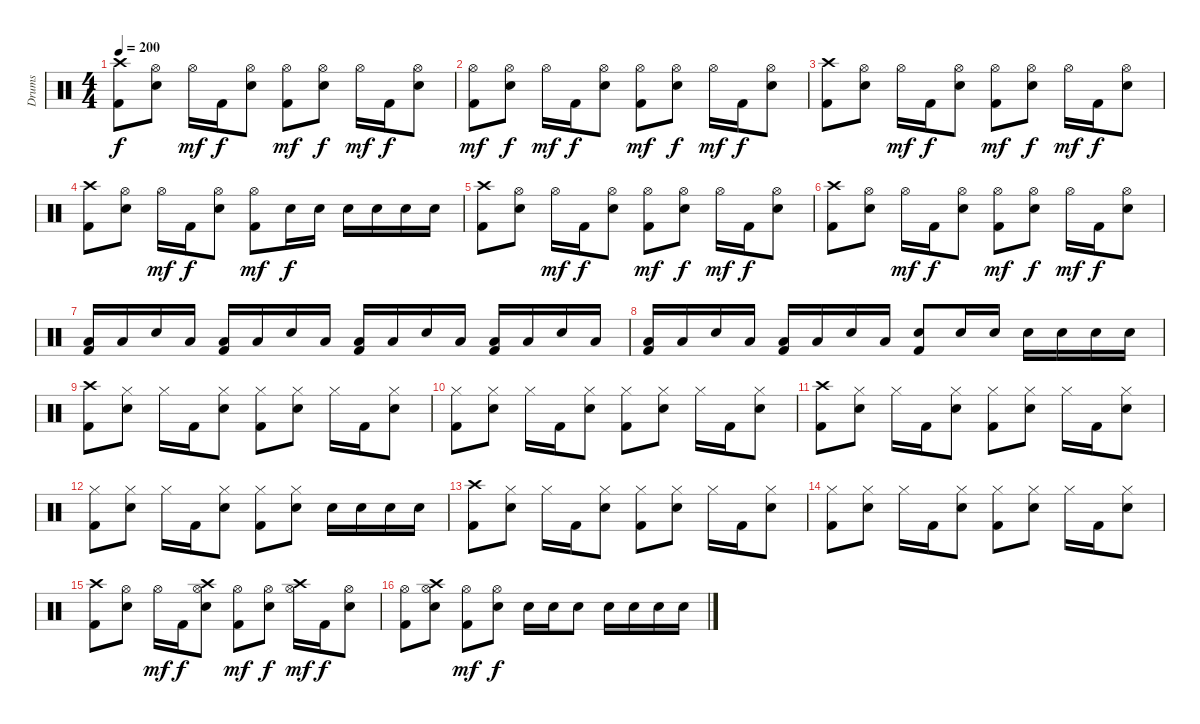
\track ("Drums" "Drums") {instrument percussion}
\staff {score}
\articulation defaults
\ts (4 4)
\tempo 200
\clef neutral
\ks c
("Crash high (hit)" "Kick (hit) 2").8{dy f} ("Hi-Hat (open)" "Electric Snare (hit)").8 "Hi-Hat (open)".16{dy mf} "Kick (hit) 2".16{dy f} ("Hi-Hat (open)" "Electric Snare (hit)").8 ("Hi-Hat (open)" "Kick (hit) 2").8{dy mf} ("Hi-Hat (open)" "Electric Snare (hit)").8{dy f} "Hi-Hat (open)".16{dy mf} "Kick (hit) 2".16{dy f} ("Hi-Hat (open)" "Electric Snare (hit)").8 |
("Hi-Hat (open)" "Kick (hit) 2").8{dy mf} ("Hi-Hat (open)" "Electric Snare (hit)").8{dy f} "Hi-Hat (open)".16{dy mf} "Kick (hit) 2".16{dy f} ("Hi-Hat (open)" "Electric Snare (hit)").8 ("Hi-Hat (open)" "Kick (hit) 2").8{dy mf} ("Hi-Hat (open)" "Electric Snare (hit)").8{dy f} "Hi-Hat (open)".16{dy mf} "Kick (hit) 2".16{dy f} ("Hi-Hat (open)" "Electric Snare (hit)").8 |
("Crash high (hit)" "Kick (hit) 2").8 ("Hi-Hat (open)" "Electric Snare (hit)").8 "Hi-Hat (open)".16{dy mf} "Kick (hit) 2".16{dy f} ("Hi-Hat (open)" "Electric Snare (hit)").8 ("Hi-Hat (open)" "Kick (hit) 2").8{dy mf} ("Hi-Hat (open)" "Electric Snare (hit)").8{dy f} "Hi-Hat (open)".16{dy mf} "Kick (hit) 2".16{dy f} ("Hi-Hat (open)" "Electric Snare (hit)").8 |
("Crash high (hit)" "Kick (hit) 2").8 ("Hi-Hat (open)" "Electric Snare (hit)").8 "Hi-Hat (open)".16{dy mf} "Kick (hit) 2".16{dy f} ("Hi-Hat (open)" "Electric Snare (hit)").8 ("Hi-Hat (open)" "Kick (hit) 2").8{dy mf} "Electric Snare (hit)".16{dy f} "Electric Snare (hit)".16 "Electric Snare (hit)".16 "Electric Snare (hit)".16 "Electric Snare (hit)".16 "Electric Snare (hit)".16 |
("Crash high (hit)" "Kick (hit) 2").8 ("Hi-Hat (open)" "Electric Snare (hit)").8 "Hi-Hat (open)".16{dy mf} "Kick (hit) 2".16{dy f} ("Hi-Hat (open)" "Electric Snare (hit)").8 ("Hi-Hat (open)" "Kick (hit) 2").8{dy mf} ("Hi-Hat (open)" "Electric Snare (hit)").8{dy f} "Hi-Hat (open)".16{dy mf} "Kick (hit) 2".16{dy f} ("Hi-Hat (open)" "Electric Snare (hit)").8 |
("Crash high (hit)" "Kick (hit) 2").8 ("Hi-Hat (open)" "Electric Snare (hit)").8 "Hi-Hat (open)".16{dy mf} "Kick (hit) 2".16{dy f} ("Hi-Hat (open)" "Electric Snare (hit)").8 ("Hi-Hat (open)" "Kick (hit) 2").8{dy mf} ("Hi-Hat (open)" "Electric Snare (hit)").8{dy f} "Hi-Hat (open)".16{dy mf} "Kick (hit) 2".16{dy f} ("Hi-Hat (open)" "Electric Snare (hit)").8 |
("Low Tom (hit)" "Kick (hit) 2").16 "Low Tom (hit)".16 "Electric Snare (hit)".16 "Low Tom (hit)".16 ("Low Tom (hit)" "Kick (hit) 2").16 "Low Tom (hit)".16 "Electric Snare (hit)".16 "Low Tom (hit)".16 ("Low Tom (hit)" "Kick (hit) 2").16 "Low Tom (hit)".16 "Electric Snare (hit)".16 "Low Tom (hit)".16 ("Low Tom (hit)" "Kick (hit) 2").16 "Low Tom (hit)".16 "Electric Snare (hit)".16 "Low Tom (hit)".16 |
("Low Tom (hit)" "Kick (hit) 2").16 "Low Tom (hit)".16 "Electric Snare (hit)".16 "Low Tom (hit)".16 ("Low Tom (hit)" "Kick (hit) 2").16 "Low Tom (hit)".16 "Electric Snare (hit)".16 "Low Tom (hit)".16 ("Electric Snare (hit)" "Kick (hit) 2").8 "Electric Snare (hit)".16 "Electric Snare (hit)".16 "Electric Snare (hit)".16 "Electric Snare (hit)".16 "Electric Snare (hit)".16 "Electric Snare (hit)".16 |
("Crash high (hit)" "Kick (hit) 2").8 ("Hi-Hat (closed)" "Electric Snare (hit)").8 "Hi-Hat (closed)".16 "Kick (hit) 2".16 ("Hi-Hat (closed)" "Electric Snare (hit)").8 ("Hi-Hat (closed)" "Kick (hit) 2").8 ("Hi-Hat (closed)" "Electric Snare (hit)").8 "Hi-Hat (closed)".16 "Kick (hit) 2".16 ("Hi-Hat (closed)" "Electric Snare (hit)").8 |
("Hi-Hat (closed)" "Kick (hit) 2").8 ("Hi-Hat (closed)" "Electric Snare (hit)").8 "Hi-Hat (closed)".16 "Kick (hit) 2".16 ("Hi-Hat (closed)" "Electric Snare (hit)").8 ("Hi-Hat (closed)" "Kick (hit) 2").8 ("Hi-Hat (closed)" "Electric Snare (hit)").8 "Hi-Hat (closed)".16 "Kick (hit) 2".16 ("Hi-Hat (closed)" "Electric Snare (hit)").8 |
("Crash high (hit)" "Kick (hit) 2").8 ("Hi-Hat (closed)" "Electric Snare (hit)").8 "Hi-Hat (closed)".16 "Kick (hit) 2".16 ("Hi-Hat (closed)" "Electric Snare (hit)").8 ("Hi-Hat (closed)" "Kick (hit) 2").8 ("Hi-Hat (closed)" "Electric Snare (hit)").8 "Hi-Hat (closed)".16 "Kick (hit) 2".16 ("Hi-Hat (closed)" "Electric Snare (hit)").8 |
("Hi-Hat (closed)" "Kick (hit) 2").8 ("Hi-Hat (closed)" "Electric Snare (hit)").8 "Hi-Hat (closed)".16 "Kick (hit) 2".16 ("Hi-Hat (closed)" "Electric Snare (hit)").8 ("Hi-Hat (closed)" "Kick (hit) 2").8 ("Hi-Hat (closed)" "Electric Snare (hit)").8 "Electric Snare (hit)".16 "Electric Snare (hit)".16 "Electric Snare (hit)".16 "Electric Snare (hit)".16 |
("Crash high (hit)" "Kick (hit) 2").8 ("Hi-Hat (closed)" "Electric Snare (hit)").8 "Hi-Hat (closed)".16 "Kick (hit) 2".16 ("Hi-Hat (closed)" "Electric Snare (hit)").8 ("Hi-Hat (closed)" "Kick (hit) 2").8 ("Hi-Hat (closed)" "Electric Snare (hit)").8 "Hi-Hat (closed)".16 "Kick (hit) 2".16 ("Hi-Hat (closed)" "Electric Snare (hit)").8 |
("Hi-Hat (closed)" "Kick (hit) 2").8 ("Hi-Hat (closed)" "Electric Snare (hit)").8 "Hi-Hat (closed)".16 "Kick (hit) 2".16 ("Hi-Hat (closed)" "Electric Snare (hit)").8 ("Hi-Hat (closed)" "Kick (hit) 2").8 ("Hi-Hat (closed)" "Electric Snare (hit)").8 "Hi-Hat (closed)".16 "Kick (hit) 2".16 ("Hi-Hat (closed)" "Electric Snare (hit)").8 |
("Crash high (hit)" "Kick (hit) 2").8 ("Hi-Hat (open)" "Electric Snare (hit)").8 "Hi-Hat (open)".16{dy mf} "Kick (hit) 2".16{dy f} ("Crash high (hit)" "Hi-Hat (open)" "Electric Snare (hit)").8 ("Hi-Hat (open)" "Kick (hit) 2").8{dy mf} ("Hi-Hat (open)" "Electric Snare (hit)").8{dy f} ("Crash high (hit)" "Hi-Hat (open)").16{dy mf} "Kick (hit) 2".16{dy f} ("Hi-Hat (open)" "Electric Snare (hit)").8 |
("Hi-Hat (open)" "Kick (hit) 2").8 ("Crash high (hit)" "Hi-Hat (open)" "Electric Snare (hit)").8 ("Hi-Hat (open)" "Kick (hit) 2").8{dy mf} ("Hi-Hat (open)" "Electric Snare (hit)").8{dy f} "Electric Snare (hit)".16 "Electric Snare (hit)".16 "Electric Snare (hit)".8 "Electric Snare (hit)".16 "Electric Snare (hit)".16 "Electric Snare (hit)".16 "Electric Snare (hit)".16
